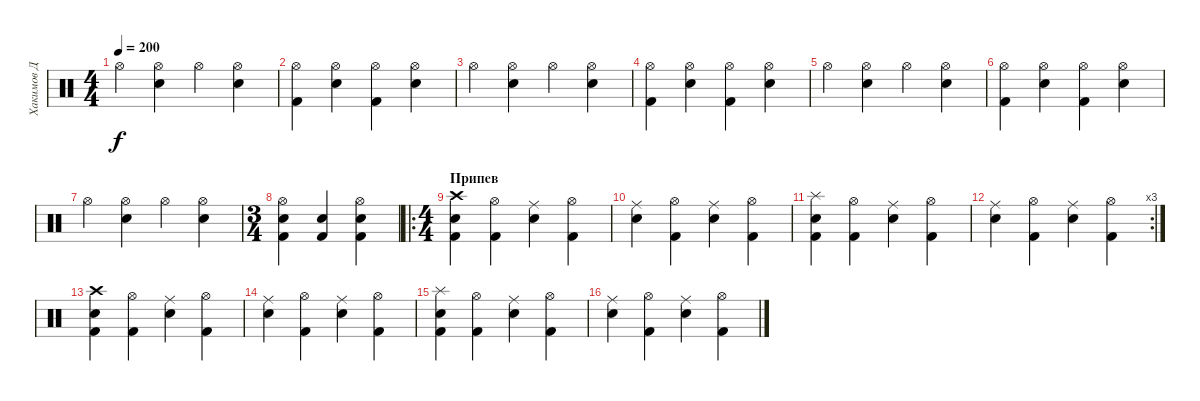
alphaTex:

\track ("Хакимов Д" "Хакимов Д") {instrument percussion}
\staff {score}
\articulation defaults
\ts (4 4)
\tempo 200
\clef neutral
\ks c "Hi-Hat (open)".4{dy f}
("Hi-Hat (open)" "Snare (hit) 2").4 "Hi-Hat (open)".4 ("Hi-Hat (open)" "Snare (hit) 2").4 |
("Hi-Hat (open)" "Kick (hit) 2").4 ("Hi-Hat (open)" "Snare (hit) 2").4 ("Hi-Hat (open)" "Kick (hit) 2").4 ("Hi-Hat (open)" "Snare (hit) 2").4 |
"Hi-Hat (open)".4 ("Hi-Hat (open)" "Snare (hit) 2").4 "Hi-Hat (open)".4 ("Hi-Hat (open)" "Snare (hit) 2").4 |
("Hi-Hat (open)" "Kick (hit) 2").4 ("Hi-Hat (open)" "Snare (hit) 2").4 ("Hi-Hat (open)" "Kick (hit) 2").4 ("Hi-Hat (open)" "Snare (hit) 2").4 |
"Hi-Hat (open)".4 ("Hi-Hat (open)" "Snare (hit) 2").4 "Hi-Hat (open)".4 ("Hi-Hat (open)" "Snare (hit) 2").4 |
("Hi-Hat (open)" "Kick (hit) 2").4 ("Hi-Hat (open)" "Snare (hit) 2").4 ("Hi-Hat (open)" "Kick (hit) 2").4 ("Hi-Hat (open)" "Snare (hit) 2").4 |
"Hi-Hat (open)".4 ("Hi-Hat (open)" "Snare (hit) 2").4 "Hi-Hat (open)".4 ("Hi-Hat (open)" "Snare (hit) 2").4 |
\ts (3 4)
("Kick (hit) 2" "Snare (hit) 2" "Hi-Hat (open)").4 ("Kick (hit) 2" "Snare (hit) 2").4 ("Kick (hit) 2" "Snare (hit) 2" "Hi-Hat (open)").4 |
\ro
\ts (4 4)
\section ("" "Припев")
("Crash high (hit)" "Snare (hit) 2" "Kick (hit) 2").4 ("Hi-Hat (open)" "Kick (hit) 2").4 ("Ride (middle)" "Snare (hit) 2").4 ("Hi-Hat (open)" "Kick (hit) 2").4 |
("Ride (middle)" "Snare (hit) 2").4 ("Hi-Hat (open)" "Kick (hit) 2").4 ("Ride (middle)" "Snare (hit) 2").4 ("Hi-Hat (open)" "Kick (hit) 2").4 |
("Splash (hit)" "Snare (hit) 2" "Kick (hit) 2").4 ("Hi-Hat (open)" "Kick (hit) 2").4 ("Ride (middle)" "Snare (hit) 2").4 ("Hi-Hat (open)" "Kick (hit) 2").4 |
\rc 3
("Ride (middle)" "Snare (hit) 2").4 ("Hi-Hat (open)" "Kick (hit) 2").4 ("Ride (middle)" "Snare (hit) 2").4 ("Hi-Hat (open)" "Kick (hit) 2").4 |
("Crash high (hit)" "Snare (hit) 2" "Kick (hit) 2").4 ("Hi-Hat (open)" "Kick (hit) 2").4 ("Ride (middle)" "Snare (hit) 2").4 ("Hi-Hat (open)" "Kick (hit) 2").4 |
("Ride (middle)" "Snare (hit) 2").4 ("Hi-Hat (open)" "Kick (hit) 2").4 ("Ride (middle)" "Snare (hit) 2").4 ("Hi-Hat (open)" "Kick (hit) 2").4 |
("Splash (hit)" "Snare (hit) 2" "Kick (hit) 2").4 ("Hi-Hat (open)" "Kick (hit) 2").4 ("Ride (middle)" "Snare (hit) 2").4 ("Hi-Hat (open)" "Kick (hit) 2").4 |
("Ride (middle)" "Snare (hit) 2").4 ("Hi-Hat (open)" "Kick (hit) 2").4 ("Ride (middle)" "Snare (hit) 2").4 ("Hi-Hat (open)" "Kick (hit) 2").4
